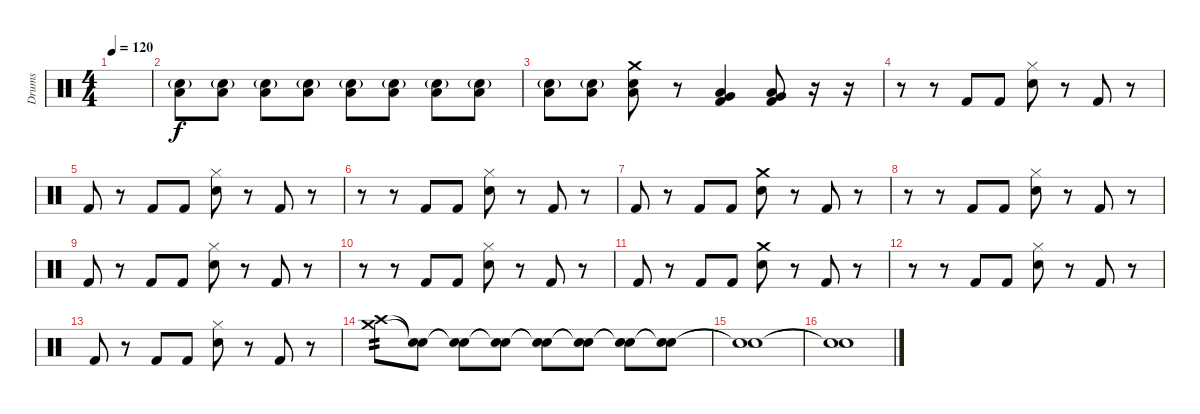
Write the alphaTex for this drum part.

\track ("Drums" "Drums") {instrument percussion}
\staff {score}
\articulation defaults
\ts (4 4)
\tempo 120
\clef neutral
\ks c
|
("Snare (hit) 2"{g} "Low Tom (hit)").8{volume 14} ("Snare (hit) 2"{g} "Low Tom (hit)").8 ("Snare (hit) 2"{g} "Low Tom (hit)").8 ("Snare (hit) 2"{g} "Low Tom (hit)").8 ("Snare (hit) 2"{g} "Low Tom (hit)").8 ("Snare (hit) 2"{g} "Low Tom (hit)").8 ("Snare (hit) 2"{g} "Low Tom (hit)").8 ("Snare (hit) 2"{g} "Low Tom (hit)").8 |
("Snare (hit) 2"{g} "Low Tom (hit)").8 ("Snare (hit) 2"{g} "Low Tom (hit)").8 ("Crash medium (hit)" "Snare (hit) 2" "Low Tom (hit)").8{dy f} r.8 ("Very Low Tom (hit)" "Low Tom (hit)" "Kick (hit) 2").4 ("Very Low Tom (hit)" "Low Floor Tom (hit)" "Kick (hit) 2").8 r.16 r.16 |
r.8 r.8 "Kick (hit) 2".8 "Kick (hit) 2".8 ("Hi-Hat (closed)" "Snare (hit) 2").8 r.8 "Kick (hit) 2".8 r.8 |
"Kick (hit) 2".8 r.8 "Kick (hit) 2".8 "Kick (hit) 2".8 ("Hi-Hat (closed)" "Snare (hit) 2").8 r.8 "Kick (hit) 2".8 r.8 |
r.8 r.8 "Kick (hit) 2".8 "Kick (hit) 2".8 ("Hi-Hat (closed)" "Snare (hit) 2").8 r.8 "Kick (hit) 2".8 r.8 |
"Kick (hit) 2".8 r.8 "Kick (hit) 2".8 "Kick (hit) 2".8 ("Crash medium (hit)" "Snare (hit) 2").8 r.8 "Kick (hit) 2".8 r.8 |
r.8 r.8 "Kick (hit) 2".8 "Kick (hit) 2".8 ("Hi-Hat (closed)" "Snare (hit) 2").8 r.8 "Kick (hit) 2".8 r.8 |
"Kick (hit) 2".8 r.8 "Kick (hit) 2".8 "Kick (hit) 2".8 ("Hi-Hat (closed)" "Snare (hit) 2").8 r.8 "Kick (hit) 2".8 r.8 |
r.8 r.8 "Kick (hit) 2".8 "Kick (hit) 2".8 ("Hi-Hat (closed)" "Snare (hit) 2").8 r.8 "Kick (hit) 2".8 r.8 |
"Kick (hit) 2".8 r.8 "Kick (hit) 2".8 "Kick (hit) 2".8 ("Crash medium (hit)" "Snare (hit) 2").8 r.8 "Kick (hit) 2".8 r.8 |
r.8 r.8 "Kick (hit) 2".8 "Kick (hit) 2".8 ("Hi-Hat (closed)" "Snare (hit) 2").8 r.8 "Kick (hit) 2".8 r.8 |
"Kick (hit) 2".8 r.8 "Kick (hit) 2".8 "Kick (hit) 2".8 ("Hi-Hat (closed)" "Snare (hit) 2").8 r.8 "Kick (hit) 2".8 r.8 |
("Crash high (hit)" "Crash medium (hit)").8{tp 2 volume 0} ("Snare (hit)"{t} "Snare (hit)"{t}).8 ("Snare (hit)"{t} "Snare (hit)"{t}).8 ("Snare (hit)"{t} "Snare (hit)"{t}).8 ("Snare (hit)"{t} "Snare (hit)"{t}).8 ("Snare (hit)"{t} "Snare (hit)"{t}).8 ("Snare (hit)"{t} "Snare (hit)"{t}).8 ("Snare (hit)"{t} "Snare (hit)"{t}).8 |
("Snare (hit) 2"{t} "Snare (hit) 2"{t}).1 |
("Snare (hit)"{t} "Snare (hit)"{t}).1
